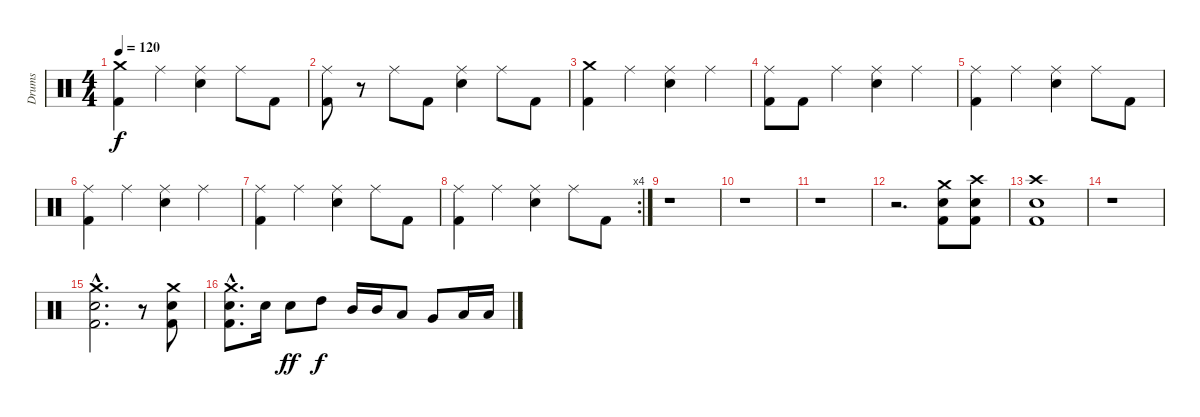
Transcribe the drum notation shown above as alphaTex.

\track ("Drums " "Drums ") {instrument percussion}
\staff {score}
\articulation defaults
\ts (4 4)
\tempo 120
\clef neutral
\ks c
("Crash medium (hit)" "Kick (hit) 2").4{dy f} "Ride (middle)".4 ("Ride (middle)" "Snare (hit) 2").4 "Ride (middle)".8 "Kick (hit) 2".8 |
("Ride (middle)" "Kick (hit) 2").8 r.8 "Ride (middle)".8 "Kick (hit) 2".8 ("Ride (middle)" "Snare (hit) 2").4 "Ride (middle)".8 "Kick (hit) 2".8 |
("Crash medium (hit)" "Kick (hit) 2").4 "Ride (middle)".4 ("Ride (middle)" "Snare (hit) 2").4 "Ride (middle)".4 |
("Ride (middle)" "Kick (hit) 2").8 "Kick (hit) 2".8 "Ride (middle)".4 ("Ride (middle)" "Snare (hit) 2").4 "Ride (middle)".4 |
("Ride (middle)" "Kick (hit) 2").4 "Ride (middle)".4 ("Ride (middle)" "Snare (hit) 2").4 "Ride (middle)".8 "Kick (hit) 2".8 |
("Ride (middle)" "Kick (hit) 2").4 "Ride (middle)".4 ("Ride (middle)" "Snare (hit) 2").4 "Ride (middle)".4 |
("Ride (middle)" "Kick (hit) 2").4 "Ride (middle)".4 ("Ride (middle)" "Snare (hit) 2").4 "Ride (middle)".8 "Kick (hit) 2".8 |
\rc 4
("Ride (middle)" "Kick (hit) 2").4 "Ride (middle)".4 ("Ride (middle)" "Snare (hit) 2").4 "Ride (middle)".8 "Kick (hit) 2".8 |
r.1 |
r.1 |
r.1 |
r.2{d} ("Crash medium (hit)" "Snare (hit) 2" "Kick (hit) 2").8 ("Crash high (hit)" "Snare (hit) 2" "Kick (hit) 2").8 |
("Crash high (hit)" "Snare (hit) 2" "Kick (hit) 2").1 |
r.1 |
("Crash medium (hit)"{hac} "Snare (hit) 2"{hac} "Kick (hit) 2"{hac}).2{d} r.8 ("Crash medium (hit)" "Snare (hit) 2" "Kick (hit) 2").8 |
("Crash medium (hit)"{hac} "Snare (hit) 2"{hac} "Kick (hit) 2"{hac}).8{d} "Snare (hit) 2".16 "Snare (hit) 2".8{dy ff} "High Tom (hit)".8{dy f} "Mid Tom (hit)".16 "Mid Tom (hit)".16 "Low Tom (hit)".8 "Very Low Tom (hit)".8 "Low Floor Tom (hit)".16 "Low Floor Tom (hit)".16
